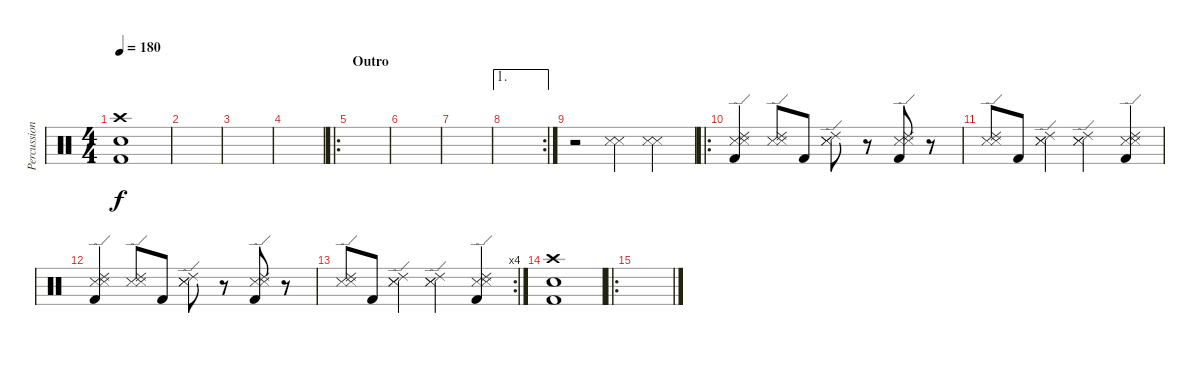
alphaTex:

\track ("Percussions" "Percussion") {instrument percussion}
\staff {score}
\articulation defaults
\ts (4 4)
\tempo 180
\clef neutral
\ks c
("Crash high (hit)" "Snare (hit) 2" "Kick (hit) 2").1{dy f} |
|
|
|
\ro
\section ("" "Outro")
|
|
|
\ae 1
\rc 2
|
r.2 ("Metronome (hit)" "Metronome (hit)").4 ("Metronome (hit)" "Metronome (hit)").4 |
\ro
("Ride (edge) 2" "Metronome (hit)" "Metronome (hit)" "Kick (hit) 2").4 ("Ride (edge) 2" "Metronome (hit)" "Metronome (hit)").8 "Kick (hit) 2".8 ("Ride (edge) 2" "Metronome (hit)" "Metronome (hit)").8 r.8 ("Ride (edge) 2" "Metronome (hit)" "Metronome (hit)" "Kick (hit) 2").8 r.8 |
("Ride (edge) 2" "Metronome (hit)" "Metronome (hit)").8 "Kick (hit) 2".8 ("Ride (edge) 2" "Metronome (hit)" "Metronome (hit)").4 ("Ride (edge) 2" "Metronome (hit)" "Metronome (hit)").4 ("Ride (edge) 2" "Metronome (hit)" "Metronome (hit)" "Kick (hit) 2").4 |
("Ride (edge) 2" "Metronome (hit)" "Metronome (hit)" "Kick (hit) 2").4 ("Ride (edge) 2" "Metronome (hit)" "Metronome (hit)").8 "Kick (hit) 2".8 ("Ride (edge) 2" "Metronome (hit)" "Metronome (hit)").8 r.8 ("Ride (edge) 2" "Metronome (hit)" "Metronome (hit)" "Kick (hit) 2").8 r.8 |
\rc 4
("Ride (edge) 2" "Metronome (hit)" "Metronome (hit)").8 "Kick (hit) 2".8 ("Ride (edge) 2" "Metronome (hit)" "Metronome (hit)").4 ("Ride (edge) 2" "Metronome (hit)" "Metronome (hit)").4 ("Ride (edge) 2" "Metronome (hit)" "Metronome (hit)" "Kick (hit) 2").4 |
("Crash high (hit)" "Electric Snare (hit)" "Kick (hit) 2").1 |
\ro
